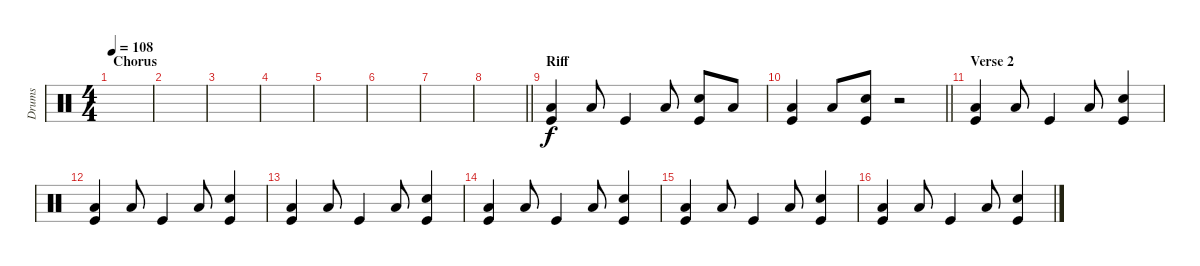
\track ("Drums" "Drums") {instrument percussion}
\staff {score}
\articulation defaults
\ts (4 4)
\section ("" "Chorus")
\tempo 108
\clef neutral
\ks c
|
|
|
|
|
|
|
\barLineRight lightlight
|
\section ("" "Riff")
("Low Floor Tom (hit)" "Kick (hit)").4 "Low Floor Tom (hit)".8 "Kick (hit)".4 "Low Floor Tom (hit)".8 ("Snare (hit) 2" "Kick (hit)").8 "Low Floor Tom (hit)".8 |
\barLineRight lightlight
("Low Floor Tom (hit)" "Kick (hit)").4 "Low Floor Tom (hit)".8 ("Snare (hit) 2" "Kick (hit)").8 r.2 |
\section ("" "Verse 2")
("Low Floor Tom (hit)" "Kick (hit)").4 "Low Floor Tom (hit)".8 "Kick (hit)".4 "Low Floor Tom (hit)".8 ("Snare (hit) 2" "Kick (hit)").4 |
("Low Floor Tom (hit)" "Kick (hit)").4 "Low Floor Tom (hit)".8 "Kick (hit)".4 "Low Floor Tom (hit)".8 ("Snare (hit) 2" "Kick (hit)").4 |
("Low Floor Tom (hit)" "Kick (hit)").4 "Low Floor Tom (hit)".8 "Kick (hit)".4 "Low Floor Tom (hit)".8 ("Snare (hit) 2" "Kick (hit)").4 |
("Low Floor Tom (hit)" "Kick (hit)").4 "Low Floor Tom (hit)".8 "Kick (hit)".4 "Low Floor Tom (hit)".8 ("Snare (hit) 2" "Kick (hit)").4 |
("Low Floor Tom (hit)" "Kick (hit)").4 "Low Floor Tom (hit)".8 "Kick (hit)".4 "Low Floor Tom (hit)".8 ("Snare (hit) 2" "Kick (hit)").4 |
("Low Floor Tom (hit)" "Kick (hit)").4 "Low Floor Tom (hit)".8 "Kick (hit)".4 "Low Floor Tom (hit)".8 ("Snare (hit) 2" "Kick (hit)").4
